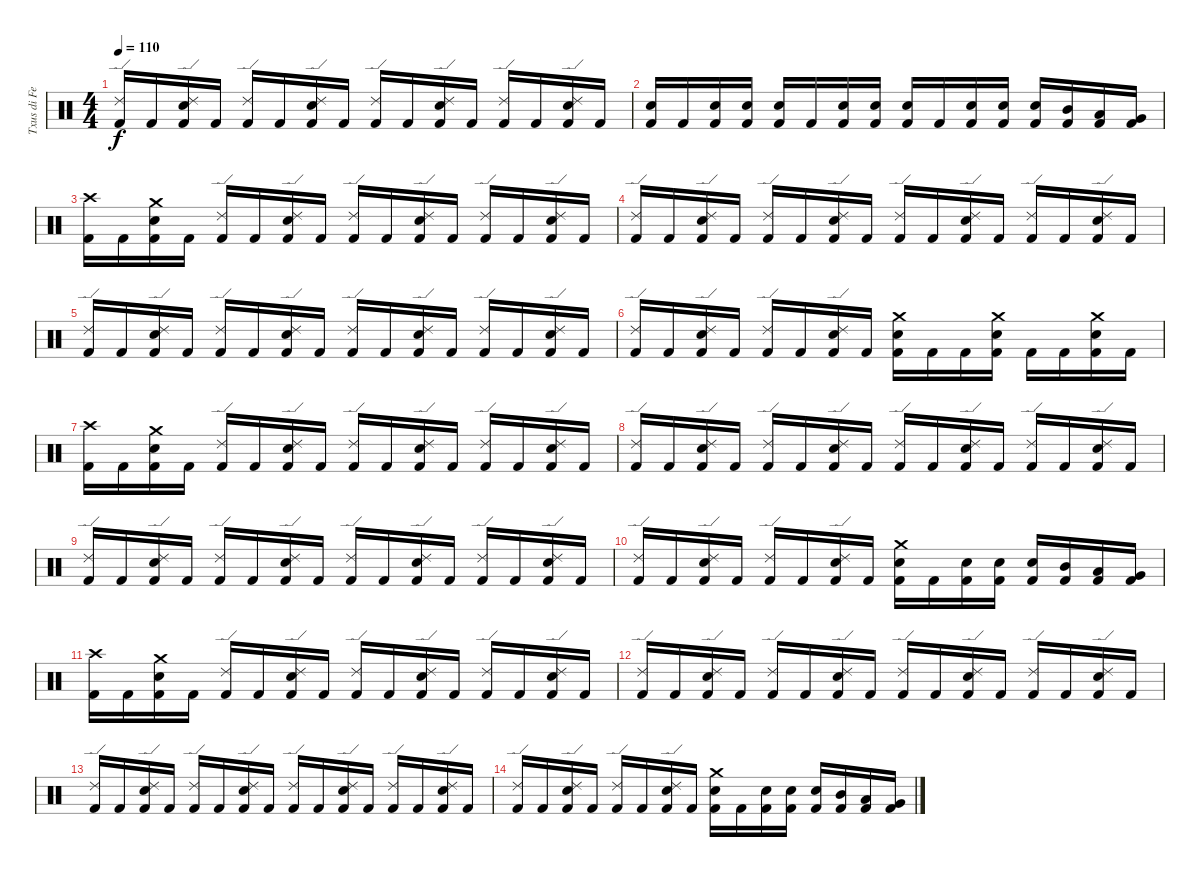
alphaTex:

\track ("Txus di Fellatio" "Txus di Fe") {instrument percussion}
\staff {score}
\articulation defaults
\ts (4 4)
\tempo 110
\clef neutral
\ks c
("Kick (hit) 2" "Ride (edge) 2").16{dy f} "Kick (hit) 2".16 ("Kick (hit) 2" "Ride (edge) 2" "Electric Snare (hit)").16 "Kick (hit) 2".16 ("Kick (hit) 2" "Ride (edge) 2").16 "Kick (hit) 2".16 ("Kick (hit) 2" "Ride (edge) 2" "Electric Snare (hit)").16 "Kick (hit) 2".16 ("Kick (hit) 2" "Ride (edge) 2").16 "Kick (hit) 2".16 ("Kick (hit) 2" "Ride (edge) 2" "Electric Snare (hit)").16 "Kick (hit) 2".16 ("Kick (hit) 2" "Ride (edge) 2").16 "Kick (hit) 2".16 ("Kick (hit) 2" "Ride (edge) 2" "Electric Snare (hit)").16 "Kick (hit) 2".16 |
("Kick (hit) 2" "Electric Snare (hit)").16 "Kick (hit) 2".16 ("Kick (hit) 2" "Electric Snare (hit)").16 ("Kick (hit) 2" "Electric Snare (hit)").16 ("Kick (hit) 2" "Electric Snare (hit)").16 "Kick (hit) 2".16 ("Kick (hit) 2" "Electric Snare (hit)").16 ("Kick (hit) 2" "Electric Snare (hit)").16 ("Kick (hit) 2" "Electric Snare (hit)").16 "Kick (hit) 2".16 ("Kick (hit) 2" "Electric Snare (hit)").16 ("Kick (hit) 2" "Electric Snare (hit)").16 ("Kick (hit) 2" "Electric Snare (hit)").16 ("Kick (hit) 2" "Mid Tom (hit)").16 ("Kick (hit) 2" "Low Tom (hit)").16 ("Kick (hit) 2" "Very Low Tom (hit)").16 |
("Kick (hit) 2" "Crash high (hit)").16 "Kick (hit) 2".16 ("Kick (hit) 2" "Crash medium (hit)" "Electric Snare (hit)").16 "Kick (hit) 2".16 ("Kick (hit) 2" "Ride (edge) 2").16 "Kick (hit) 2".16 ("Kick (hit) 2" "Ride (edge) 2" "Electric Snare (hit)").16 "Kick (hit) 2".16 ("Kick (hit) 2" "Ride (edge) 2").16 "Kick (hit) 2".16 ("Kick (hit) 2" "Ride (edge) 2" "Electric Snare (hit)").16 "Kick (hit) 2".16 ("Kick (hit) 2" "Ride (edge) 2").16 "Kick (hit) 2".16 ("Kick (hit) 2" "Ride (edge) 2" "Electric Snare (hit)").16 "Kick (hit) 2".16 |
("Kick (hit) 2" "Ride (edge) 2").16 "Kick (hit) 2".16 ("Kick (hit) 2" "Ride (edge) 2" "Electric Snare (hit)").16 "Kick (hit) 2".16 ("Kick (hit) 2" "Ride (edge) 2").16 "Kick (hit) 2".16 ("Kick (hit) 2" "Ride (edge) 2" "Electric Snare (hit)").16 "Kick (hit) 2".16 ("Kick (hit) 2" "Ride (edge) 2").16 "Kick (hit) 2".16 ("Kick (hit) 2" "Ride (edge) 2" "Electric Snare (hit)").16 "Kick (hit) 2".16 ("Kick (hit) 2" "Ride (edge) 2").16 "Kick (hit) 2".16 ("Kick (hit) 2" "Ride (edge) 2" "Electric Snare (hit)").16 "Kick (hit) 2".16 |
("Kick (hit) 2" "Ride (edge) 2").16 "Kick (hit) 2".16 ("Kick (hit) 2" "Ride (edge) 2" "Electric Snare (hit)").16 "Kick (hit) 2".16 ("Kick (hit) 2" "Ride (edge) 2").16 "Kick (hit) 2".16 ("Kick (hit) 2" "Ride (edge) 2" "Electric Snare (hit)").16 "Kick (hit) 2".16 ("Kick (hit) 2" "Ride (edge) 2").16 "Kick (hit) 2".16 ("Kick (hit) 2" "Ride (edge) 2" "Electric Snare (hit)").16 "Kick (hit) 2".16 ("Kick (hit) 2" "Ride (edge) 2").16 "Kick (hit) 2".16 ("Kick (hit) 2" "Ride (edge) 2" "Electric Snare (hit)").16 "Kick (hit) 2".16 |
("Kick (hit) 2" "Ride (edge) 2").16 "Kick (hit) 2".16 ("Kick (hit) 2" "Ride (edge) 2" "Electric Snare (hit)").16 "Kick (hit) 2".16 ("Kick (hit) 2" "Ride (edge) 2").16 "Kick (hit) 2".16 ("Kick (hit) 2" "Ride (edge) 2" "Electric Snare (hit)").16 "Kick (hit) 2".16 ("Kick (hit) 2" "Crash medium (hit)" "Electric Snare (hit)").16 "Kick (hit) 2".16 "Kick (hit) 2".16 ("Kick (hit) 2" "Crash medium (hit)" "Electric Snare (hit)").16 "Kick (hit) 2".16 "Kick (hit) 2".16 ("Kick (hit) 2" "Crash medium (hit)" "Electric Snare (hit)").16 "Kick (hit) 2".16 |
("Kick (hit) 2" "Crash high (hit)").16 "Kick (hit) 2".16 ("Kick (hit) 2" "Crash medium (hit)" "Electric Snare (hit)").16 "Kick (hit) 2".16 ("Kick (hit) 2" "Ride (edge) 2").16 "Kick (hit) 2".16 ("Kick (hit) 2" "Ride (edge) 2" "Electric Snare (hit)").16 "Kick (hit) 2".16 ("Kick (hit) 2" "Ride (edge) 2").16 "Kick (hit) 2".16 ("Kick (hit) 2" "Ride (edge) 2" "Electric Snare (hit)").16 "Kick (hit) 2".16 ("Kick (hit) 2" "Ride (edge) 2").16 "Kick (hit) 2".16 ("Kick (hit) 2" "Ride (edge) 2" "Electric Snare (hit)").16 "Kick (hit) 2".16 |
("Kick (hit) 2" "Ride (edge) 2").16 "Kick (hit) 2".16 ("Kick (hit) 2" "Ride (edge) 2" "Electric Snare (hit)").16 "Kick (hit) 2".16 ("Kick (hit) 2" "Ride (edge) 2").16 "Kick (hit) 2".16 ("Kick (hit) 2" "Ride (edge) 2" "Electric Snare (hit)").16 "Kick (hit) 2".16 ("Kick (hit) 2" "Ride (edge) 2").16 "Kick (hit) 2".16 ("Kick (hit) 2" "Ride (edge) 2" "Electric Snare (hit)").16 "Kick (hit) 2".16 ("Kick (hit) 2" "Ride (edge) 2").16 "Kick (hit) 2".16 ("Kick (hit) 2" "Ride (edge) 2" "Electric Snare (hit)").16 "Kick (hit) 2".16 |
("Kick (hit) 2" "Ride (edge) 2").16 "Kick (hit) 2".16 ("Kick (hit) 2" "Ride (edge) 2" "Electric Snare (hit)").16 "Kick (hit) 2".16 ("Kick (hit) 2" "Ride (edge) 2").16 "Kick (hit) 2".16 ("Kick (hit) 2" "Ride (edge) 2" "Electric Snare (hit)").16 "Kick (hit) 2".16 ("Kick (hit) 2" "Ride (edge) 2").16 "Kick (hit) 2".16 ("Kick (hit) 2" "Ride (edge) 2" "Electric Snare (hit)").16 "Kick (hit) 2".16 ("Kick (hit) 2" "Ride (edge) 2").16 "Kick (hit) 2".16 ("Kick (hit) 2" "Ride (edge) 2" "Electric Snare (hit)").16 "Kick (hit) 2".16 |
("Kick (hit) 2" "Ride (edge) 2").16 "Kick (hit) 2".16 ("Kick (hit) 2" "Ride (edge) 2" "Electric Snare (hit)").16 "Kick (hit) 2".16 ("Kick (hit) 2" "Ride (edge) 2").16 "Kick (hit) 2".16 ("Kick (hit) 2" "Ride (edge) 2" "Electric Snare (hit)").16 "Kick (hit) 2".16 ("Kick (hit) 2" "Crash medium (hit)" "Electric Snare (hit)").16 "Kick (hit) 2".16 ("Kick (hit) 2" "Electric Snare (hit)").16 ("Kick (hit) 2" "Electric Snare (hit)").16 ("Kick (hit) 2" "Electric Snare (hit)").16 ("Kick (hit) 2" "Mid Tom (hit)").16 ("Kick (hit) 2" "Low Tom (hit)").16 ("Kick (hit) 2" "Very Low Tom (hit)").16 |
("Kick (hit) 2" "Crash high (hit)").16 "Kick (hit) 2".16 ("Kick (hit) 2" "Crash medium (hit)" "Electric Snare (hit)").16 "Kick (hit) 2".16 ("Kick (hit) 2" "Ride (edge) 2").16 "Kick (hit) 2".16 ("Kick (hit) 2" "Ride (edge) 2" "Electric Snare (hit)").16 "Kick (hit) 2".16 ("Kick (hit) 2" "Ride (edge) 2").16 "Kick (hit) 2".16 ("Kick (hit) 2" "Ride (edge) 2" "Electric Snare (hit)").16 "Kick (hit) 2".16 ("Kick (hit) 2" "Ride (edge) 2").16 "Kick (hit) 2".16 ("Kick (hit) 2" "Ride (edge) 2" "Electric Snare (hit)").16 "Kick (hit) 2".16 |
("Kick (hit) 2" "Ride (edge) 2").16 "Kick (hit) 2".16 ("Kick (hit) 2" "Ride (edge) 2" "Electric Snare (hit)").16 "Kick (hit) 2".16 ("Kick (hit) 2" "Ride (edge) 2").16 "Kick (hit) 2".16 ("Kick (hit) 2" "Ride (edge) 2" "Electric Snare (hit)").16 "Kick (hit) 2".16 ("Kick (hit) 2" "Ride (edge) 2").16 "Kick (hit) 2".16 ("Kick (hit) 2" "Ride (edge) 2" "Electric Snare (hit)").16 "Kick (hit) 2".16 ("Kick (hit) 2" "Ride (edge) 2").16 "Kick (hit) 2".16 ("Kick (hit) 2" "Ride (edge) 2" "Electric Snare (hit)").16 "Kick (hit) 2".16 |
("Kick (hit) 2" "Ride (edge) 2").16 "Kick (hit) 2".16 ("Kick (hit) 2" "Ride (edge) 2" "Electric Snare (hit)").16 "Kick (hit) 2".16 ("Kick (hit) 2" "Ride (edge) 2").16 "Kick (hit) 2".16 ("Kick (hit) 2" "Ride (edge) 2" "Electric Snare (hit)").16 "Kick (hit) 2".16 ("Kick (hit) 2" "Ride (edge) 2").16 "Kick (hit) 2".16 ("Kick (hit) 2" "Ride (edge) 2" "Electric Snare (hit)").16 "Kick (hit) 2".16 ("Kick (hit) 2" "Ride (edge) 2").16 "Kick (hit) 2".16 ("Kick (hit) 2" "Ride (edge) 2" "Electric Snare (hit)").16 "Kick (hit) 2".16 |
("Kick (hit) 2" "Ride (edge) 2").16 "Kick (hit) 2".16 ("Kick (hit) 2" "Ride (edge) 2" "Electric Snare (hit)").16 "Kick (hit) 2".16 ("Kick (hit) 2" "Ride (edge) 2").16 "Kick (hit) 2".16 ("Kick (hit) 2" "Ride (edge) 2" "Electric Snare (hit)").16 "Kick (hit) 2".16 ("Kick (hit) 2" "Crash medium (hit)" "Electric Snare (hit)").16 "Kick (hit) 2".16 ("Kick (hit) 2" "Electric Snare (hit)").16 ("Kick (hit) 2" "Electric Snare (hit)").16 ("Kick (hit) 2" "Electric Snare (hit)").16 ("Kick (hit) 2" "Mid Tom (hit)").16 ("Kick (hit) 2" "Low Tom (hit)").16 ("Kick (hit) 2" "Very Low Tom (hit)").16
